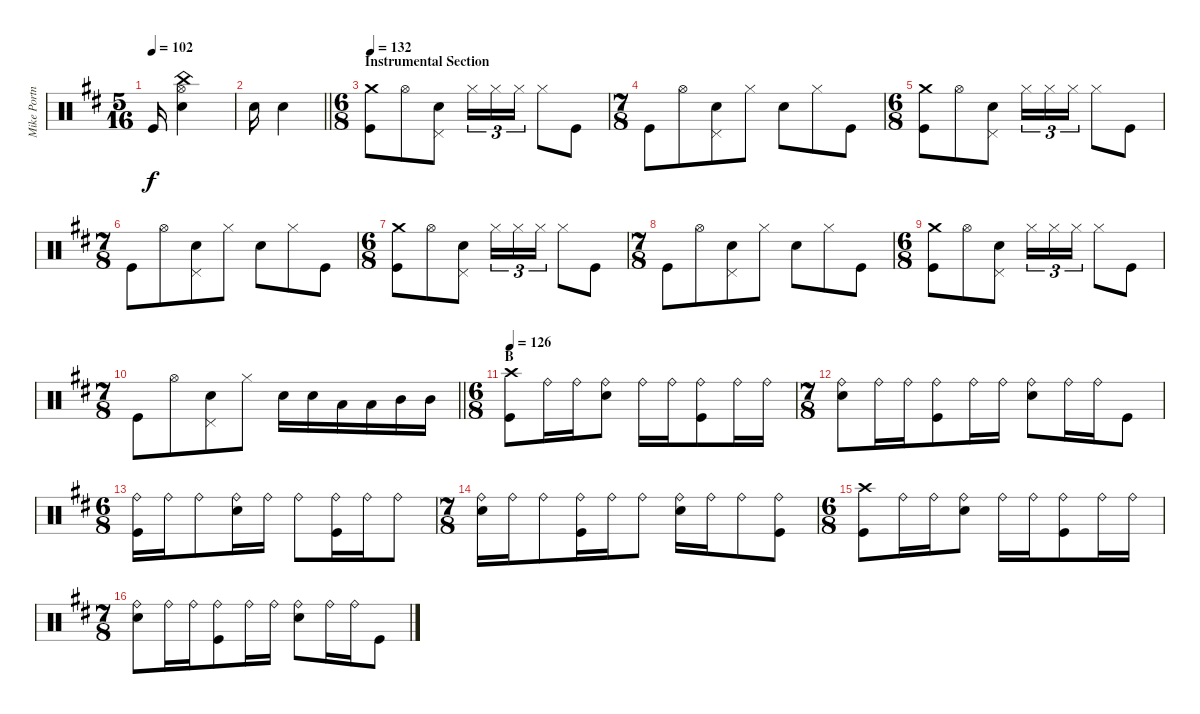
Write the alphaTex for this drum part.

\track ("Mike Portnoy" "Mike Portn") {instrument percussion}
\staff {score}
\articulation defaults
\ts (5 16)
\tempo 102
\clef neutral
\ks bminor "Kick (hit)".16{dy f}
("Snare (hit) 2" "Hi-Hat (open)" "China (hit)").4 |
\barLineRight lightlight "Snare (hit) 2".16 "Snare (hit) 2".4
|
\ts (6 8)
\section ("" "Instrumental Section")
\tempo 132
("Crash medium (hit)" "Kick (hit)").8 "Hi-Hat (open)".8 ("Snare (hit) 2" "Pedal Hi-Hat (hit)").8 "Hi-Hat (closed)".16{tu (3 2)} "Hi-Hat (closed)".16{tu (3 2)} "Hi-Hat (closed)".16{tu (3 2)} "Hi-Hat (closed)".8 "Kick (hit)".8 |
\ts (7 8)
"Kick (hit)".8 "Hi-Hat (open)".8 ("Snare (hit) 2" "Pedal Hi-Hat (hit)").8 "Hi-Hat (closed)".8 "Snare (hit) 2".8 "Hi-Hat (closed)".8 "Kick (hit)".8 |
\ts (6 8)
("Crash medium (hit)" "Kick (hit)").8 "Hi-Hat (open)".8 ("Snare (hit) 2" "Pedal Hi-Hat (hit)").8 "Hi-Hat (closed)".16{tu (3 2)} "Hi-Hat (closed)".16{tu (3 2)} "Hi-Hat (closed)".16{tu (3 2)} "Hi-Hat (closed)".8 "Kick (hit)".8 |
\ts (7 8)
"Kick (hit)".8 "Hi-Hat (open)".8 ("Snare (hit) 2" "Pedal Hi-Hat (hit)").8 "Hi-Hat (closed)".8 "Snare (hit) 2".8 "Hi-Hat (closed)".8 "Kick (hit)".8 |
\ts (6 8)
("Crash medium (hit)" "Kick (hit)").8 "Hi-Hat (open)".8 ("Snare (hit) 2" "Pedal Hi-Hat (hit)").8 "Hi-Hat (closed)".16{tu (3 2)} "Hi-Hat (closed)".16{tu (3 2)} "Hi-Hat (closed)".16{tu (3 2)} "Hi-Hat (closed)".8 "Kick (hit)".8 |
\ts (7 8)
"Kick (hit)".8 "Hi-Hat (open)".8 ("Snare (hit) 2" "Pedal Hi-Hat (hit)").8 "Hi-Hat (closed)".8 "Snare (hit) 2".8 "Hi-Hat (closed)".8 "Kick (hit)".8 |
\ts (6 8)
("Crash medium (hit)" "Kick (hit)").8 "Hi-Hat (open)".8 ("Snare (hit) 2" "Pedal Hi-Hat (hit)").8 "Hi-Hat (closed)".16{tu (3 2)} "Hi-Hat (closed)".16{tu (3 2)} "Hi-Hat (closed)".16{tu (3 2)} "Hi-Hat (closed)".8 "Kick (hit)".8 |
\ts (7 8)
\barLineRight lightlight "Kick (hit)".8 "Hi-Hat (open)".8
("Snare (hit) 2" "Pedal Hi-Hat (hit)").8 "Hi-Hat (closed)".8 "Electric Snare (hit)".16 "Electric Snare (hit)".16 "Low Tom (hit)".16 "Low Tom (hit)".16 "Mid Tom (hit)".16 "Mid Tom (hit)".16 |
\ts (6 8)
\section ("" "B")
\tempo 126
("Crash high (hit)" "Kick (hit)").8 "Ride (bell)".16 "Ride (bell)".16 ("Ride (bell)" "Snare (hit) 2").8 "Ride (bell)".16 "Ride (bell)".16 ("Ride (bell)" "Kick (hit)").8 "Ride (bell)".16 "Ride (bell)".16 |
\ts (7 8)
("Ride (bell)" "Snare (hit) 2").8 "Ride (bell)".16 "Ride (bell)".16 ("Ride (bell)" "Kick (hit)").8 "Ride (bell)".16 "Ride (bell)".16 ("Ride (bell)" "Snare (hit) 2").8 "Ride (bell)".16 "Ride (bell)".16 "Kick (hit)".8 |
\ts (6 8)
("Ride (bell)" "Kick (hit)").16 "Ride (bell)".16 "Ride (bell)".8 ("Ride (bell)" "Snare (hit) 2").16 "Ride (bell)".16 "Ride (bell)".8 ("Ride (bell)" "Kick (hit)").16 "Ride (bell)".16 "Ride (bell)".8 |
\ts (7 8)
("Ride (bell)" "Snare (hit) 2").16 "Ride (bell)".16 "Ride (bell)".8 ("Ride (bell)" "Kick (hit)").16 "Ride (bell)".16 "Ride (bell)".8 ("Ride (bell)" "Snare (hit) 2").16 "Ride (bell)".16 "Ride (bell)".8 ("Ride (bell)" "Kick (hit)").8 |
\ts (6 8)
("Crash high (hit)" "Kick (hit)").8 "Ride (bell)".16 "Ride (bell)".16 ("Ride (bell)" "Snare (hit) 2").8 "Ride (bell)".16 "Ride (bell)".16 ("Ride (bell)" "Kick (hit)").8 "Ride (bell)".16 "Ride (bell)".16 |
\ts (7 8)
("Ride (bell)" "Snare (hit) 2").8 "Ride (bell)".16 "Ride (bell)".16 ("Ride (bell)" "Kick (hit)").8 "Ride (bell)".16 "Ride (bell)".16 ("Ride (bell)" "Snare (hit) 2").8 "Ride (bell)".16 "Ride (bell)".16 "Kick (hit)".8
